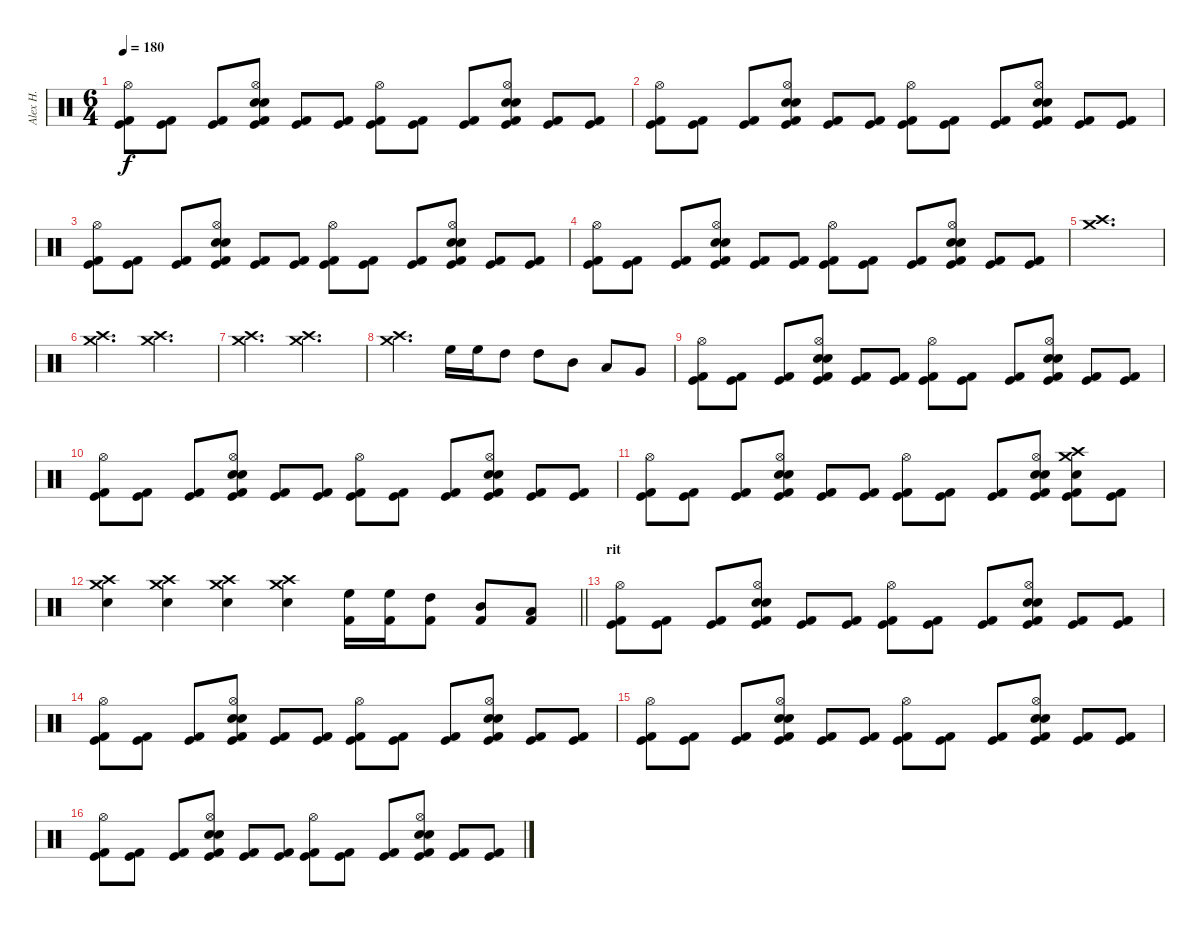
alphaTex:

\track ("Alex H." "Alex H.") {instrument percussion}
\staff {score}
\articulation defaults
\ts (6 4)
\tempo 180
\clef neutral
\ks c
("Kick (hit) 2" "Kick (hit)" "Hi-Hat (open)").8{dy f} ("Kick (hit) 2" "Kick (hit)").8 ("Kick (hit) 2" "Kick (hit)").8 ("Kick (hit) 2" "Kick (hit)" "Snare (hit) 2" "Hi-Hat (open)" "Electric Snare (hit)").8 ("Kick (hit) 2" "Kick (hit)").8 ("Kick (hit) 2" "Kick (hit)").8 ("Kick (hit) 2" "Kick (hit)" "Hi-Hat (open)").8 ("Kick (hit) 2" "Kick (hit)").8 ("Kick (hit) 2" "Kick (hit)").8 ("Kick (hit) 2" "Kick (hit)" "Snare (hit) 2" "Electric Snare (hit)" "Hi-Hat (open)").8 ("Kick (hit) 2" "Kick (hit)").8 ("Kick (hit) 2" "Kick (hit)").8 |
("Kick (hit) 2" "Kick (hit)" "Hi-Hat (open)").8 ("Kick (hit) 2" "Kick (hit)").8 ("Kick (hit) 2" "Kick (hit)").8 ("Kick (hit) 2" "Kick (hit)" "Snare (hit) 2" "Hi-Hat (open)" "Electric Snare (hit)").8 ("Kick (hit) 2" "Kick (hit)").8 ("Kick (hit) 2" "Kick (hit)").8 ("Kick (hit) 2" "Kick (hit)" "Hi-Hat (open)").8 ("Kick (hit) 2" "Kick (hit)").8 ("Kick (hit) 2" "Kick (hit)").8 ("Kick (hit) 2" "Kick (hit)" "Snare (hit) 2" "Electric Snare (hit)" "Hi-Hat (open)").8 ("Kick (hit) 2" "Kick (hit)").8 ("Kick (hit) 2" "Kick (hit)").8 |
("Kick (hit) 2" "Kick (hit)" "Hi-Hat (open)").8 ("Kick (hit) 2" "Kick (hit)").8 ("Kick (hit) 2" "Kick (hit)").8 ("Kick (hit) 2" "Kick (hit)" "Snare (hit) 2" "Hi-Hat (open)" "Electric Snare (hit)").8 ("Kick (hit) 2" "Kick (hit)").8 ("Kick (hit) 2" "Kick (hit)").8 ("Kick (hit) 2" "Kick (hit)" "Hi-Hat (open)").8 ("Kick (hit) 2" "Kick (hit)").8 ("Kick (hit) 2" "Kick (hit)").8 ("Kick (hit) 2" "Kick (hit)" "Snare (hit) 2" "Electric Snare (hit)" "Hi-Hat (open)").8 ("Kick (hit) 2" "Kick (hit)").8 ("Kick (hit) 2" "Kick (hit)").8 |
("Kick (hit) 2" "Kick (hit)" "Hi-Hat (open)").8 ("Kick (hit) 2" "Kick (hit)").8 ("Kick (hit) 2" "Kick (hit)").8 ("Kick (hit) 2" "Kick (hit)" "Snare (hit) 2" "Hi-Hat (open)" "Electric Snare (hit)").8 ("Kick (hit) 2" "Kick (hit)").8 ("Kick (hit) 2" "Kick (hit)").8 ("Kick (hit) 2" "Kick (hit)" "Hi-Hat (open)").8 ("Kick (hit) 2" "Kick (hit)").8 ("Kick (hit) 2" "Kick (hit)").8 ("Kick (hit) 2" "Kick (hit)" "Snare (hit) 2" "Electric Snare (hit)" "Hi-Hat (open)").8 ("Kick (hit) 2" "Kick (hit)").8 ("Kick (hit) 2" "Kick (hit)").8 |
("Crash medium (hit)" "Crash high (hit)").1{d} |
("Crash medium (hit)" "Crash high (hit)").2{d} ("Crash medium (hit)" "Crash high (hit)").2{d} |
("Crash medium (hit)" "Crash high (hit)").2{d} ("Crash medium (hit)" "Crash high (hit)").2{d} |
("Crash medium (hit)" "Crash high (hit)").2{d} "High Floor Tom (hit)".16 "High Floor Tom (hit)".16 "High Tom (hit)".8 "High Tom (hit)".8 "Mid Tom (hit)".8 "Low Tom (hit)".8 "Very Low Tom (hit)".8 |
("Kick (hit) 2" "Kick (hit)" "Hi-Hat (open)").8 ("Kick (hit) 2" "Kick (hit)").8 ("Kick (hit) 2" "Kick (hit)").8 ("Kick (hit) 2" "Kick (hit)" "Snare (hit) 2" "Hi-Hat (open)" "Electric Snare (hit)").8 ("Kick (hit) 2" "Kick (hit)").8 ("Kick (hit) 2" "Kick (hit)").8 ("Kick (hit) 2" "Kick (hit)" "Hi-Hat (open)").8 ("Kick (hit) 2" "Kick (hit)").8 ("Kick (hit) 2" "Kick (hit)").8 ("Kick (hit) 2" "Kick (hit)" "Snare (hit) 2" "Electric Snare (hit)" "Hi-Hat (open)").8 ("Kick (hit) 2" "Kick (hit)").8 ("Kick (hit) 2" "Kick (hit)").8 |
("Kick (hit) 2" "Kick (hit)" "Hi-Hat (open)").8 ("Kick (hit) 2" "Kick (hit)").8 ("Kick (hit) 2" "Kick (hit)").8 ("Kick (hit) 2" "Kick (hit)" "Snare (hit) 2" "Hi-Hat (open)" "Electric Snare (hit)").8 ("Kick (hit) 2" "Kick (hit)").8 ("Kick (hit) 2" "Kick (hit)").8 ("Kick (hit) 2" "Kick (hit)" "Hi-Hat (open)").8 ("Kick (hit) 2" "Kick (hit)").8 ("Kick (hit) 2" "Kick (hit)").8 ("Kick (hit) 2" "Kick (hit)" "Snare (hit) 2" "Electric Snare (hit)" "Hi-Hat (open)").8 ("Kick (hit) 2" "Kick (hit)").8 ("Kick (hit) 2" "Kick (hit)").8 |
("Kick (hit) 2" "Kick (hit)" "Hi-Hat (open)").8 ("Kick (hit) 2" "Kick (hit)").8 ("Kick (hit) 2" "Kick (hit)").8 ("Kick (hit) 2" "Kick (hit)" "Snare (hit) 2" "Hi-Hat (open)" "Electric Snare (hit)").8 ("Kick (hit) 2" "Kick (hit)").8 ("Kick (hit) 2" "Kick (hit)").8 ("Kick (hit) 2" "Kick (hit)" "Hi-Hat (open)").8 ("Kick (hit) 2" "Kick (hit)").8 ("Kick (hit) 2" "Kick (hit)").8 ("Kick (hit) 2" "Kick (hit)" "Snare (hit) 2" "Electric Snare (hit)" "Hi-Hat (open)").8 ("Kick (hit) 2" "Kick (hit)" "Snare (hit) 2" "Crash high (hit)" "Crash medium (hit)").8 ("Kick (hit) 2" "Kick (hit)").8 |
\barLineRight lightlight
("Snare (hit) 2" "Crash medium (hit)" "Crash high (hit)").4 ("Snare (hit) 2" "Crash medium (hit)" "Crash high (hit)").4 ("Snare (hit) 2" "Crash medium (hit)" "Crash high (hit)").4 ("Snare (hit) 2" "Crash medium (hit)" "Crash high (hit)").4 ("Kick (hit) 2" "High Floor Tom (hit)").16 ("Kick (hit) 2" "High Floor Tom (hit)").16 ("Kick (hit) 2" "High Tom (hit)").8 ("Kick (hit) 2" "Mid Tom (hit)").8 ("Kick (hit) 2" "Low Tom (hit)").8 |
\section ("" "rit")
("Kick (hit) 2" "Kick (hit)" "Hi-Hat (open)").8 ("Kick (hit) 2" "Kick (hit)").8 ("Kick (hit) 2" "Kick (hit)").8 ("Kick (hit) 2" "Kick (hit)" "Snare (hit) 2" "Hi-Hat (open)" "Electric Snare (hit)").8 ("Kick (hit) 2" "Kick (hit)").8 ("Kick (hit) 2" "Kick (hit)").8 ("Kick (hit) 2" "Kick (hit)" "Hi-Hat (open)").8 ("Kick (hit) 2" "Kick (hit)").8 ("Kick (hit) 2" "Kick (hit)").8 ("Kick (hit) 2" "Kick (hit)" "Snare (hit) 2" "Electric Snare (hit)" "Hi-Hat (open)").8 ("Kick (hit) 2" "Kick (hit)").8 ("Kick (hit) 2" "Kick (hit)").8 |
("Kick (hit) 2" "Kick (hit)" "Hi-Hat (open)").8 ("Kick (hit) 2" "Kick (hit)").8 ("Kick (hit) 2" "Kick (hit)").8 ("Kick (hit) 2" "Kick (hit)" "Snare (hit) 2" "Hi-Hat (open)" "Electric Snare (hit)").8 ("Kick (hit) 2" "Kick (hit)").8 ("Kick (hit) 2" "Kick (hit)").8 ("Kick (hit) 2" "Kick (hit)" "Hi-Hat (open)").8 ("Kick (hit) 2" "Kick (hit)").8 ("Kick (hit) 2" "Kick (hit)").8 ("Kick (hit) 2" "Kick (hit)" "Snare (hit) 2" "Electric Snare (hit)" "Hi-Hat (open)").8 ("Kick (hit) 2" "Kick (hit)").8 ("Kick (hit) 2" "Kick (hit)").8 |
("Kick (hit) 2" "Kick (hit)" "Hi-Hat (open)").8 ("Kick (hit) 2" "Kick (hit)").8 ("Kick (hit) 2" "Kick (hit)").8 ("Kick (hit) 2" "Kick (hit)" "Snare (hit) 2" "Hi-Hat (open)" "Electric Snare (hit)").8 ("Kick (hit) 2" "Kick (hit)").8 ("Kick (hit) 2" "Kick (hit)").8 ("Kick (hit) 2" "Kick (hit)" "Hi-Hat (open)").8 ("Kick (hit) 2" "Kick (hit)").8 ("Kick (hit) 2" "Kick (hit)").8 ("Kick (hit) 2" "Kick (hit)" "Snare (hit) 2" "Electric Snare (hit)" "Hi-Hat (open)").8 ("Kick (hit) 2" "Kick (hit)").8 ("Kick (hit) 2" "Kick (hit)").8 |
("Kick (hit) 2" "Kick (hit)" "Hi-Hat (open)").8 ("Kick (hit) 2" "Kick (hit)").8 ("Kick (hit) 2" "Kick (hit)").8 ("Kick (hit) 2" "Kick (hit)" "Snare (hit) 2" "Hi-Hat (open)" "Electric Snare (hit)").8 ("Kick (hit) 2" "Kick (hit)").8 ("Kick (hit) 2" "Kick (hit)").8 ("Kick (hit) 2" "Kick (hit)" "Hi-Hat (open)").8 ("Kick (hit) 2" "Kick (hit)").8 ("Kick (hit) 2" "Kick (hit)").8 ("Kick (hit) 2" "Kick (hit)" "Snare (hit) 2" "Electric Snare (hit)" "Hi-Hat (open)").8 ("Kick (hit) 2" "Kick (hit)").8 ("Kick (hit) 2" "Kick (hit)").8
